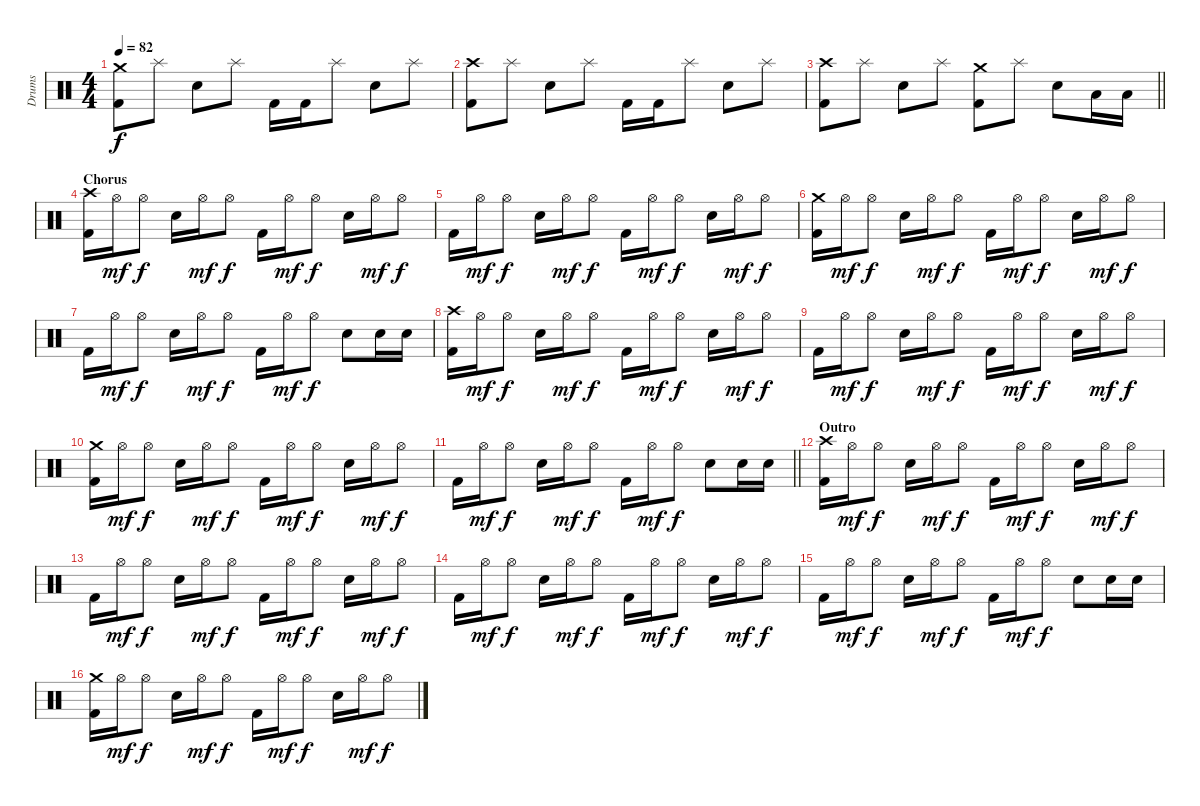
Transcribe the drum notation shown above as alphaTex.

\track ("Drums" "Drums") {instrument percussion}
\staff {score}
\articulation defaults
\ts (4 4)
\tempo 82
\clef neutral
\ks c
("Crash medium (hit)" "Kick (hit) 2").8{dy f} "Splash (hit)".8 "Snare (hit) 2".8 "Splash (hit)".8 "Kick (hit) 2".16 "Kick (hit) 2".16 "Splash (hit)".8 "Snare (hit) 2".8 "Splash (hit)".8 |
("Crash high (hit)" "Kick (hit) 2").8 "Splash (hit)".8 "Snare (hit) 2".8 "Splash (hit)".8 "Kick (hit) 2".16 "Kick (hit) 2".16 "Splash (hit)".8 "Snare (hit) 2".8 "Splash (hit)".8 |
\barLineRight lightlight
("Crash high (hit)" "Kick (hit) 2").8 "Splash (hit)".8 "Snare (hit) 2".8 "Splash (hit)".8 ("Crash medium (hit)" "Kick (hit) 2").8 "Splash (hit)".8 "Snare (hit) 2".8 "Low Tom (hit)".16 "Low Tom (hit)".16 |
\section ("" "Chorus")
("Crash high (hit)" "Kick (hit) 2").16 "Hi-Hat (open)".16{dy mf} "Hi-Hat (open)".8{dy f} "Snare (hit) 2".16 "Hi-Hat (open)".16{dy mf} "Hi-Hat (open)".8{dy f} "Kick (hit) 2".16 "Hi-Hat (open)".16{dy mf} "Hi-Hat (open)".8{dy f} "Snare (hit) 2".16 "Hi-Hat (open)".16{dy mf} "Hi-Hat (open)".8{dy f} |
"Kick (hit) 2".16 "Hi-Hat (open)".16{dy mf} "Hi-Hat (open)".8{dy f} "Snare (hit) 2".16 "Hi-Hat (open)".16{dy mf} "Hi-Hat (open)".8{dy f} "Kick (hit) 2".16 "Hi-Hat (open)".16{dy mf} "Hi-Hat (open)".8{dy f} "Snare (hit) 2".16 "Hi-Hat (open)".16{dy mf} "Hi-Hat (open)".8{dy f} |
("Crash medium (hit)" "Kick (hit) 2").16 "Hi-Hat (open)".16{dy mf} "Hi-Hat (open)".8{dy f} "Snare (hit) 2".16 "Hi-Hat (open)".16{dy mf} "Hi-Hat (open)".8{dy f} "Kick (hit) 2".16 "Hi-Hat (open)".16{dy mf} "Hi-Hat (open)".8{dy f} "Snare (hit) 2".16 "Hi-Hat (open)".16{dy mf} "Hi-Hat (open)".8{dy f} |
"Kick (hit) 2".16 "Hi-Hat (open)".16{dy mf} "Hi-Hat (open)".8{dy f} "Snare (hit) 2".16 "Hi-Hat (open)".16{dy mf} "Hi-Hat (open)".8{dy f} "Kick (hit) 2".16 "Hi-Hat (open)".16{dy mf} "Hi-Hat (open)".8{dy f} "Snare (hit) 2".8 "Snare (hit) 2".16 "Snare (hit) 2".16 |
("Crash high (hit)" "Kick (hit) 2").16 "Hi-Hat (open)".16{dy mf} "Hi-Hat (open)".8{dy f} "Snare (hit) 2".16 "Hi-Hat (open)".16{dy mf} "Hi-Hat (open)".8{dy f} "Kick (hit) 2".16 "Hi-Hat (open)".16{dy mf} "Hi-Hat (open)".8{dy f} "Snare (hit) 2".16 "Hi-Hat (open)".16{dy mf} "Hi-Hat (open)".8{dy f} |
"Kick (hit) 2".16 "Hi-Hat (open)".16{dy mf} "Hi-Hat (open)".8{dy f} "Snare (hit) 2".16 "Hi-Hat (open)".16{dy mf} "Hi-Hat (open)".8{dy f} "Kick (hit) 2".16 "Hi-Hat (open)".16{dy mf} "Hi-Hat (open)".8{dy f} "Snare (hit) 2".16 "Hi-Hat (open)".16{dy mf} "Hi-Hat (open)".8{dy f} |
("Crash medium (hit)" "Kick (hit) 2").16 "Hi-Hat (open)".16{dy mf} "Hi-Hat (open)".8{dy f} "Snare (hit) 2".16 "Hi-Hat (open)".16{dy mf} "Hi-Hat (open)".8{dy f} "Kick (hit) 2".16 "Hi-Hat (open)".16{dy mf} "Hi-Hat (open)".8{dy f} "Snare (hit) 2".16 "Hi-Hat (open)".16{dy mf} "Hi-Hat (open)".8{dy f} |
\barLineRight lightlight "Kick (hit) 2".16 "Hi-Hat (open)".16{dy mf} "Hi-Hat (open)".8{dy f} "Snare (hit) 2".16 "Hi-Hat (open)".16{dy mf} "Hi-Hat (open)".8{dy f} "Kick (hit) 2".16 "Hi-Hat (open)".16{dy mf} "Hi-Hat (open)".8{dy f} "Snare (hit) 2".8 "Snare (hit) 2".16 "Snare (hit) 2".16
|
\section ("" "Outro")
("Crash high (hit)" "Kick (hit) 2").16 "Hi-Hat (open)".16{dy mf} "Hi-Hat (open)".8{dy f} "Snare (hit) 2".16 "Hi-Hat (open)".16{dy mf} "Hi-Hat (open)".8{dy f} "Kick (hit) 2".16 "Hi-Hat (open)".16{dy mf} "Hi-Hat (open)".8{dy f} "Snare (hit) 2".16 "Hi-Hat (open)".16{dy mf} "Hi-Hat (open)".8{dy f} |
"Kick (hit) 2".16 "Hi-Hat (open)".16{dy mf} "Hi-Hat (open)".8{dy f} "Snare (hit) 2".16 "Hi-Hat (open)".16{dy mf} "Hi-Hat (open)".8{dy f} "Kick (hit) 2".16 "Hi-Hat (open)".16{dy mf} "Hi-Hat (open)".8{dy f} "Snare (hit) 2".16 "Hi-Hat (open)".16{dy mf} "Hi-Hat (open)".8{dy f} |
"Kick (hit) 2".16 "Hi-Hat (open)".16{dy mf} "Hi-Hat (open)".8{dy f} "Snare (hit) 2".16 "Hi-Hat (open)".16{dy mf} "Hi-Hat (open)".8{dy f} "Kick (hit) 2".16 "Hi-Hat (open)".16{dy mf} "Hi-Hat (open)".8{dy f} "Snare (hit) 2".16 "Hi-Hat (open)".16{dy mf} "Hi-Hat (open)".8{dy f} |
"Kick (hit) 2".16 "Hi-Hat (open)".16{dy mf} "Hi-Hat (open)".8{dy f} "Snare (hit) 2".16 "Hi-Hat (open)".16{dy mf} "Hi-Hat (open)".8{dy f} "Kick (hit) 2".16 "Hi-Hat (open)".16{dy mf} "Hi-Hat (open)".8{dy f} "Snare (hit) 2".8 "Snare (hit) 2".16 "Snare (hit) 2".16 |
("Crash medium (hit)" "Kick (hit) 2").16 "Hi-Hat (open)".16{dy mf} "Hi-Hat (open)".8{dy f} "Snare (hit) 2".16 "Hi-Hat (open)".16{dy mf} "Hi-Hat (open)".8{dy f} "Kick (hit) 2".16 "Hi-Hat (open)".16{dy mf} "Hi-Hat (open)".8{dy f} "Snare (hit) 2".16 "Hi-Hat (open)".16{dy mf} "Hi-Hat (open)".8{dy f}
